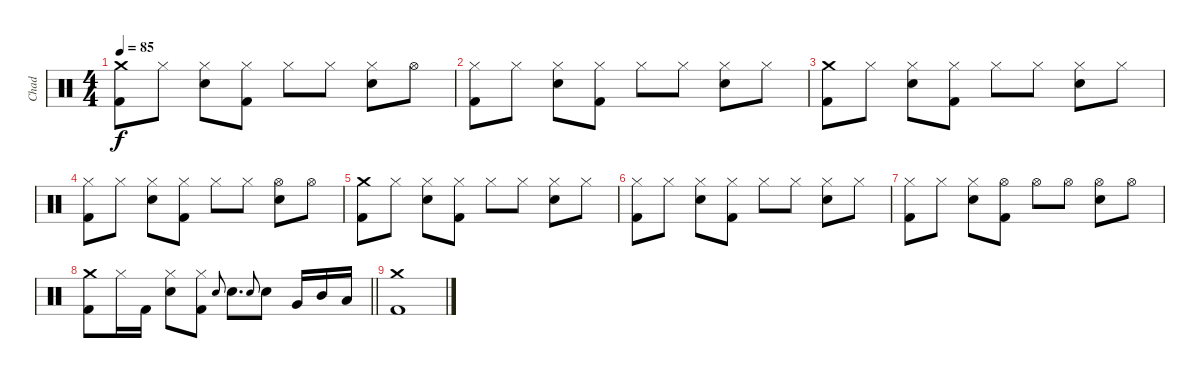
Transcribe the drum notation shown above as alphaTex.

\track ("Chad" "Chad") {instrument percussion}
\staff {score}
\articulation defaults
\ts (4 4)
\tempo 85
\clef neutral
\ks c
("Crash medium (hit)" "Kick (hit) 2").8{dy f} "Hi-Hat (closed)".8 ("Electric Snare (hit)" "Hi-Hat (closed)").8 ("Hi-Hat (closed)" "Kick (hit) 2").8 "Hi-Hat (closed)".8 "Hi-Hat (closed)".8 ("Electric Snare (hit)" "Hi-Hat (closed)").8 "Hi-Hat (open)".8 |
("Hi-Hat (closed)" "Kick (hit) 2").8 "Hi-Hat (closed)".8 ("Electric Snare (hit)" "Hi-Hat (closed)").8 ("Hi-Hat (closed)" "Kick (hit) 2").8 "Hi-Hat (closed)".8 "Hi-Hat (closed)".8 ("Electric Snare (hit)" "Hi-Hat (closed)").8 "Hi-Hat (closed)".8 |
("Crash medium (hit)" "Kick (hit) 2").8 "Hi-Hat (closed)".8 ("Electric Snare (hit)" "Hi-Hat (closed)").8 ("Hi-Hat (closed)" "Kick (hit) 2").8 "Hi-Hat (closed)".8 "Hi-Hat (closed)".8 ("Electric Snare (hit)" "Hi-Hat (closed)").8 "Hi-Hat (closed)".8 |
("Hi-Hat (closed)" "Kick (hit) 2").8 "Hi-Hat (closed)".8 ("Electric Snare (hit)" "Hi-Hat (closed)").8 ("Hi-Hat (closed)" "Kick (hit) 2").8 "Hi-Hat (closed)".8 "Hi-Hat (closed)".8 ("Electric Snare (hit)" "Hi-Hat (open)").8 "Hi-Hat (open)".8 |
("Crash medium (hit)" "Kick (hit) 2").8 "Hi-Hat (closed)".8 ("Electric Snare (hit)" "Hi-Hat (closed)").8 ("Hi-Hat (closed)" "Kick (hit) 2").8 "Hi-Hat (closed)".8 "Hi-Hat (closed)".8 ("Electric Snare (hit)" "Hi-Hat (closed)").8 "Hi-Hat (closed)".8 |
("Hi-Hat (closed)" "Kick (hit) 2").8 "Hi-Hat (closed)".8 ("Electric Snare (hit)" "Hi-Hat (closed)").8 ("Hi-Hat (closed)" "Kick (hit) 2").8 "Hi-Hat (closed)".8 "Hi-Hat (closed)".8 ("Electric Snare (hit)" "Hi-Hat (closed)").8 "Hi-Hat (closed)".8 |
("Hi-Hat (closed)" "Kick (hit) 2").8 "Hi-Hat (closed)".8 ("Electric Snare (hit)" "Hi-Hat (closed)").8 ("Hi-Hat (open)" "Kick (hit) 2").8 "Hi-Hat (open)".8 "Hi-Hat (open)".8 ("Electric Snare (hit)" "Hi-Hat (open)").8 "Hi-Hat (open)".8 |
\barLineRight lightlight
("Crash medium (hit)" "Kick (hit) 2").8 "Hi-Hat (closed)".16 "Kick (hit) 2".16 ("Electric Snare (hit)" "Hi-Hat (closed)").8 ("Hi-Hat (closed)" "Kick (hit) 2").8 "Electric Snare (hit)".8{gr onbeat} "Electric Snare (hit)".8{d} "Electric Snare (hit)".8{gr onbeat} "Electric Snare (hit)".8 "Very Low Tom (hit)".16 "Mid Tom (hit)".16 "Low Tom (hit)".16 |
("Crash medium (hit)" "Kick (hit) 2").1
